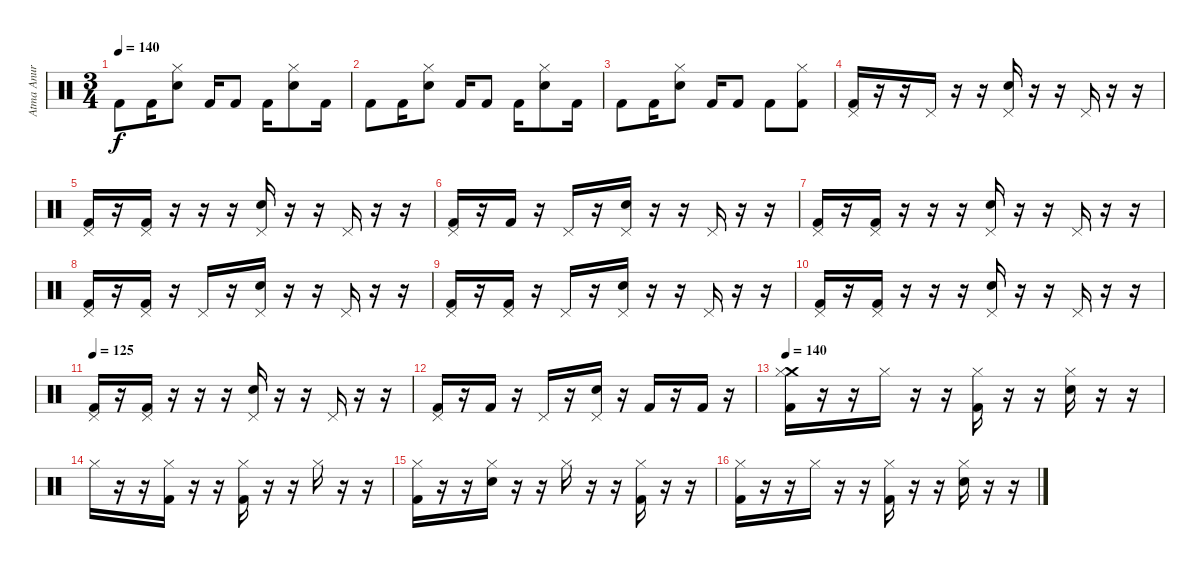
\track ("Atma Anur" "Atma Anur") {instrument percussion}
\staff {score}
\articulation defaults
\ts (3 4)
\tempo 140
\clef neutral
\ks c "Kick (hit) 2".8{dy f} "Kick (hit) 2".16
("Hi-Hat (closed)" "Snare (hit) 2").8 "Kick (hit) 2".16 "Kick (hit) 2".8 "Kick (hit) 2".16 ("Hi-Hat (closed)" "Snare (hit) 2").8 "Kick (hit) 2".16 |
"Kick (hit) 2".8 "Kick (hit) 2".16 ("Hi-Hat (closed)" "Snare (hit) 2").8 "Kick (hit) 2".16 "Kick (hit) 2".8 "Kick (hit) 2".16 ("Hi-Hat (closed)" "Snare (hit) 2").8 "Kick (hit) 2".16 |
"Kick (hit) 2".8 "Kick (hit) 2".16 ("Hi-Hat (closed)" "Snare (hit) 2").8 "Kick (hit) 2".16 "Kick (hit) 2".8 "Kick (hit) 2".8 ("Hi-Hat (closed)" "Kick (hit) 2").8 |
("Pedal Hi-Hat (hit)" "Kick (hit) 2").16 r.16 r.16 "Pedal Hi-Hat (hit)".16 r.16 r.16 ("Pedal Hi-Hat (hit)" "Snare (hit) 2").16 r.16 r.16 "Pedal Hi-Hat (hit)".16 r.16 r.16 |
("Pedal Hi-Hat (hit)" "Kick (hit) 2").16 r.16 ("Pedal Hi-Hat (hit)" "Kick (hit) 2").16 r.16 r.16 r.16 ("Pedal Hi-Hat (hit)" "Snare (hit) 2").16 r.16 r.16 "Pedal Hi-Hat (hit)".16 r.16 r.16 |
("Pedal Hi-Hat (hit)" "Kick (hit) 2").16 r.16 "Kick (hit) 2".16 r.16 "Pedal Hi-Hat (hit)".16 r.16 ("Pedal Hi-Hat (hit)" "Snare (hit) 2").16 r.16 r.16 "Pedal Hi-Hat (hit)".16 r.16 r.16 |
("Pedal Hi-Hat (hit)" "Kick (hit) 2").16 r.16 ("Pedal Hi-Hat (hit)" "Kick (hit) 2").16 r.16 r.16 r.16 ("Pedal Hi-Hat (hit)" "Snare (hit) 2").16 r.16 r.16 "Pedal Hi-Hat (hit)".16 r.16 r.16 |
("Pedal Hi-Hat (hit)" "Kick (hit) 2").16 r.16 ("Pedal Hi-Hat (hit)" "Kick (hit) 2").16 r.16 "Pedal Hi-Hat (hit)".16 r.16 ("Pedal Hi-Hat (hit)" "Snare (hit) 2").16 r.16 r.16 "Pedal Hi-Hat (hit)".16 r.16 r.16 |
("Pedal Hi-Hat (hit)" "Kick (hit) 2").16 r.16 ("Pedal Hi-Hat (hit)" "Kick (hit) 2").16 r.16 "Pedal Hi-Hat (hit)".16 r.16 ("Pedal Hi-Hat (hit)" "Snare (hit) 2").16 r.16 r.16 "Pedal Hi-Hat (hit)".16 r.16 r.16 |
("Pedal Hi-Hat (hit)" "Kick (hit) 2").16 r.16 ("Pedal Hi-Hat (hit)" "Kick (hit) 2").16 r.16 r.16 r.16 ("Pedal Hi-Hat (hit)" "Snare (hit) 2").16 r.16 r.16 "Pedal Hi-Hat (hit)".16 r.16 r.16 |
\tempo 125
("Pedal Hi-Hat (hit)" "Kick (hit) 2").16 r.16 ("Pedal Hi-Hat (hit)" "Kick (hit) 2").16 r.16 r.16 r.16 ("Pedal Hi-Hat (hit)" "Snare (hit) 2").16 r.16 r.16 "Pedal Hi-Hat (hit)".16 r.16 r.16 |
("Pedal Hi-Hat (hit)" "Kick (hit) 2").16 r.16 "Kick (hit) 2".16 r.16 "Pedal Hi-Hat (hit)".16 r.16 ("Pedal Hi-Hat (hit)" "Snare (hit) 2").16 r.16 "Kick (hit) 2".16 r.16 "Kick (hit) 2".16 r.16 |
\tempo 140
("Crash medium (hit)" "Hi-Hat (closed)" "Kick (hit) 2").16 r.16 r.16 "Hi-Hat (closed)".16 r.16 r.16 ("Hi-Hat (closed)" "Kick (hit) 2").16 r.16 r.16 ("Hi-Hat (closed)" "Snare (hit) 2").16 r.16 r.16 |
"Hi-Hat (closed)".16 r.16 r.16 ("Hi-Hat (closed)" "Kick (hit) 2").16 r.16 r.16 ("Hi-Hat (closed)" "Kick (hit) 2").16 r.16 r.16 "Hi-Hat (closed)".16 r.16 r.16 |
("Hi-Hat (closed)" "Kick (hit) 2").16 r.16 r.16 ("Hi-Hat (closed)" "Snare (hit) 2").16 r.16 r.16 "Hi-Hat (closed)".16 r.16 r.16 ("Hi-Hat (closed)" "Kick (hit) 2").16 r.16 r.16 |
("Hi-Hat (closed)" "Kick (hit) 2").16 r.16 r.16 "Hi-Hat (closed)".16 r.16 r.16 ("Hi-Hat (closed)" "Kick (hit) 2").16 r.16 r.16 ("Hi-Hat (closed)" "Snare (hit) 2").16 r.16 r.16
